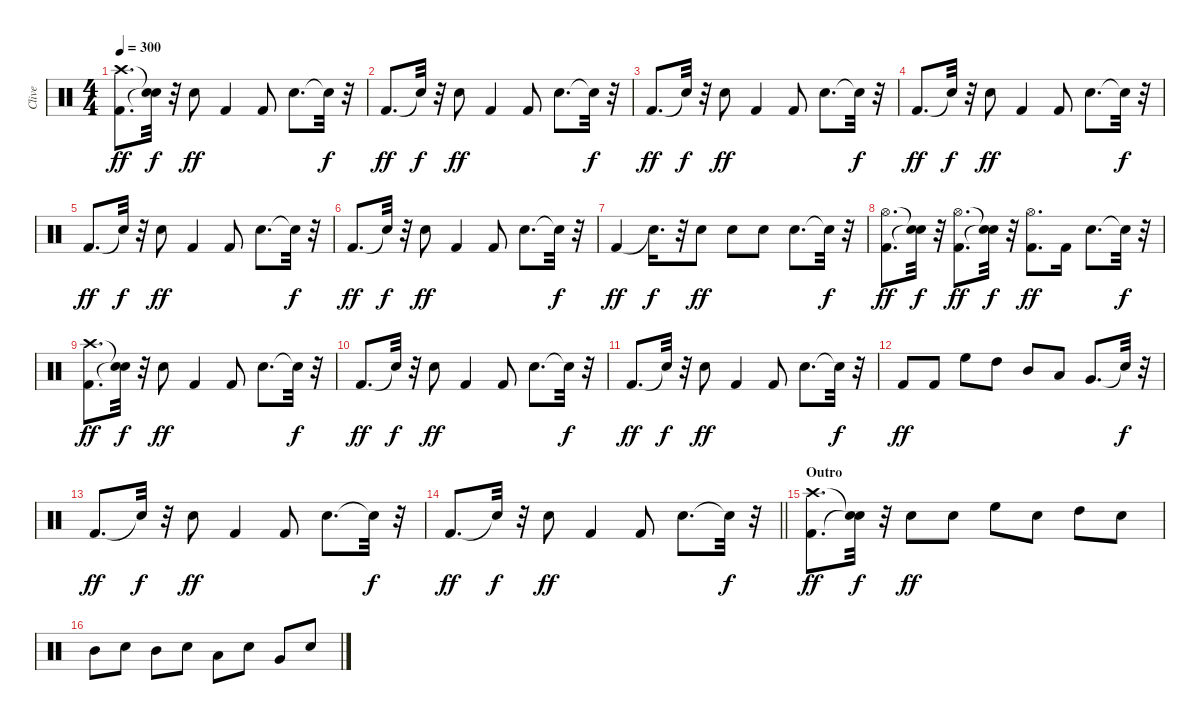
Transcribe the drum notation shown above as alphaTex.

\track ("Clive" "Clive") {instrument percussion}
\staff {score}
\articulation defaults
\ts (4 4)
\tempo 300
\clef neutral
\ks c
("Kick (hit) 2" "Crash high (hit)").8{d dy ff} ("Snare (hit)"{t} "Snare (hit)"{t}).32{dy f} r.32 "Snare (hit) 2".8{dy ff} "Kick (hit) 2".4 "Kick (hit) 2".8 "Snare (hit) 2".8{d} "Snare (hit)"{t}.32{dy f} r.32 |
"Kick (hit) 2".8{d dy ff} "Snare (hit)"{t}.32{dy f} r.32 "Snare (hit) 2".8{dy ff} "Kick (hit) 2".4 "Kick (hit) 2".8 "Snare (hit) 2".8{d} "Snare (hit)"{t}.32{dy f} r.32 |
"Kick (hit) 2".8{d dy ff} "Snare (hit)"{t}.32{dy f} r.32 "Snare (hit) 2".8{dy ff} "Kick (hit) 2".4 "Kick (hit) 2".8 "Snare (hit) 2".8{d} "Snare (hit)"{t}.32{dy f} r.32 |
"Kick (hit) 2".8{d dy ff} "Snare (hit)"{t}.32{dy f} r.32 "Snare (hit) 2".8{dy ff} "Kick (hit) 2".4 "Kick (hit) 2".8 "Snare (hit) 2".8{d} "Snare (hit)"{t}.32{dy f} r.32 |
"Kick (hit) 2".8{d dy ff} "Snare (hit)"{t}.32{dy f} r.32 "Snare (hit) 2".8{dy ff} "Kick (hit) 2".4 "Kick (hit) 2".8 "Snare (hit) 2".8{d} "Snare (hit)"{t}.32{dy f} r.32 |
"Kick (hit) 2".8{d dy ff} "Snare (hit)"{t}.32{dy f} r.32 "Snare (hit) 2".8{dy ff} "Kick (hit) 2".4 "Kick (hit) 2".8 "Snare (hit) 2".8{d} "Snare (hit)"{t}.32{dy f} r.32 |
"Kick (hit) 2".4{dy ff} "Snare (hit)"{t}.16{d dy f} r.32 "Snare (hit) 2".8{dy ff} "Snare (hit) 2".8 "Snare (hit) 2".8 "Snare (hit) 2".8{d} "Snare (hit)"{t}.32{dy f} r.32 |
("Kick (hit) 2" "Hi-Hat (open)").8{d dy ff} ("Snare (hit)"{t} "Snare (hit)"{t}).32{dy f} r.32 ("Kick (hit) 2" "Hi-Hat (open)").8{d dy ff} ("Snare (hit)"{t} "Snare (hit)"{t}).32{dy f} r.32 ("Kick (hit) 2" "Hi-Hat (open)").8{d dy ff} "Kick (hit) 2".16 "Snare (hit) 2".8{d} "Snare (hit)"{t}.32{dy f} r.32 |
("Kick (hit) 2" "Crash high (hit)").8{d dy ff} ("Snare (hit)"{t} "Snare (hit)"{t}).32{dy f} r.32 "Snare (hit) 2".8{dy ff} "Kick (hit) 2".4 "Kick (hit) 2".8 "Snare (hit) 2".8{d} "Snare (hit)"{t}.32{dy f} r.32 |
"Kick (hit) 2".8{d dy ff} "Snare (hit)"{t}.32{dy f} r.32 "Snare (hit) 2".8{dy ff} "Kick (hit) 2".4 "Kick (hit) 2".8 "Snare (hit) 2".8{d} "Snare (hit)"{t}.32{dy f} r.32 |
"Kick (hit) 2".8{d dy ff} "Snare (hit)"{t}.32{dy f} r.32 "Snare (hit) 2".8{dy ff} "Kick (hit) 2".4 "Kick (hit) 2".8 "Snare (hit) 2".8{d} "Snare (hit)"{t}.32{dy f} r.32 |
"Kick (hit) 2".8{dy ff} "Kick (hit) 2".8 "High Floor Tom (hit)".8 "High Tom (hit)".8 "Mid Tom (hit)".8 "Low Tom (hit)".8 "Very Low Tom (hit)".8{d} "Snare (hit)"{t}.32{dy f} r.32 |
"Kick (hit) 2".8{d dy ff} "Snare (hit)"{t}.32{dy f} r.32 "Snare (hit) 2".8{dy ff} "Kick (hit) 2".4 "Kick (hit) 2".8 "Snare (hit) 2".8{d} "Snare (hit)"{t}.32{dy f} r.32 |
\barLineRight lightlight "Kick (hit) 2".8{d dy ff} "Snare (hit)"{t}.32{dy f}
r.32 "Snare (hit) 2".8{dy ff} "Kick (hit) 2".4 "Kick (hit) 2".8 "Snare (hit) 2".8{d} "Snare (hit)"{t}.32{dy f} r.32 |
\section ("" "Outro")
("Kick (hit) 2" "Crash high (hit)").8{d dy ff} ("Snare (hit)"{t} "Snare (hit)"{t}).32{dy f} r.32 "Snare (hit) 2".8{dy ff} "Snare (hit) 2".8 "High Floor Tom (hit)".8 "Snare (hit) 2".8 "High Tom (hit)".8 "Snare (hit) 2".8 |
"Mid Tom (hit)".8 "Snare (hit) 2".8 "Mid Tom (hit)".8 "Snare (hit) 2".8 "Low Tom (hit)".8 "Snare (hit) 2".8 "Very Low Tom (hit)".8 "Snare (hit) 2".8
